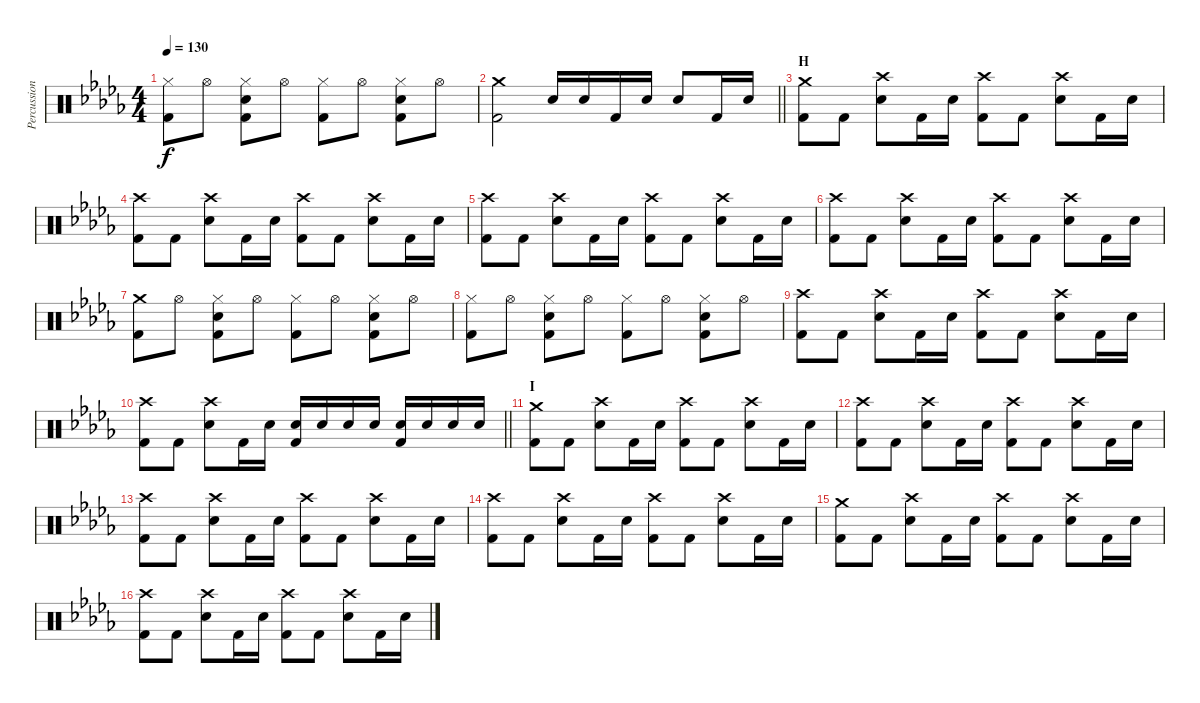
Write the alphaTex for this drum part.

\track ("Percussion" "Percussion") {instrument percussion}
\staff {score}
\articulation defaults
\ts (4 4)
\tempo 130
\clef neutral
\ks db
("Hi-Hat (closed)" "Kick (hit) 2").8{dy f} "Hi-Hat (open)".8 ("Hi-Hat (closed)" "Electric Snare (hit)" "Kick (hit) 2").8 "Hi-Hat (open)".8 ("Hi-Hat (closed)" "Kick (hit) 2").8 "Hi-Hat (open)".8 ("Hi-Hat (closed)" "Electric Snare (hit)" "Kick (hit) 2").8 "Hi-Hat (open)".8 |
\barLineRight lightlight
("Crash medium (hit)" "Kick (hit) 2").2 "Electric Snare (hit)".16 "Electric Snare (hit)".16 "Kick (hit) 2".16 "Electric Snare (hit)".16 "Electric Snare (hit)".8 "Kick (hit) 2".16 "Electric Snare (hit)".16 |
\section ("" "H")
("Crash medium (hit)" "Kick (hit) 2").8 "Kick (hit) 2".8 ("Crash high (hit)" "Electric Snare (hit)").8 "Kick (hit) 2".16 "Electric Snare (hit)".16 ("Crash high (hit)" "Kick (hit) 2").8 "Kick (hit) 2".8 ("Crash high (hit)" "Electric Snare (hit)").8 "Kick (hit) 2".16 "Electric Snare (hit)".16 |
("Crash high (hit)" "Kick (hit) 2").8 "Kick (hit) 2".8 ("Crash high (hit)" "Electric Snare (hit)").8 "Kick (hit) 2".16 "Electric Snare (hit)".16 ("Crash high (hit)" "Kick (hit) 2").8 "Kick (hit) 2".8 ("Crash high (hit)" "Electric Snare (hit)").8 "Kick (hit) 2".16 "Electric Snare (hit)".16 |
("Crash high (hit)" "Kick (hit) 2").8 "Kick (hit) 2".8 ("Crash high (hit)" "Electric Snare (hit)").8 "Kick (hit) 2".16 "Electric Snare (hit)".16 ("Crash high (hit)" "Kick (hit) 2").8 "Kick (hit) 2".8 ("Crash high (hit)" "Electric Snare (hit)").8 "Kick (hit) 2".16 "Electric Snare (hit)".16 |
("Crash high (hit)" "Kick (hit) 2").8 "Kick (hit) 2".8 ("Crash high (hit)" "Electric Snare (hit)").8 "Kick (hit) 2".16 "Electric Snare (hit)".16 ("Crash high (hit)" "Kick (hit) 2").8 "Kick (hit) 2".8 ("Crash high (hit)" "Electric Snare (hit)").8 "Kick (hit) 2".16 "Electric Snare (hit)".16 |
("Crash medium (hit)" "Kick (hit) 2").8 "Hi-Hat (open)".8 ("Hi-Hat (closed)" "Electric Snare (hit)" "Kick (hit) 2").8 "Hi-Hat (open)".8 ("Hi-Hat (closed)" "Kick (hit) 2").8 "Hi-Hat (open)".8 ("Hi-Hat (closed)" "Electric Snare (hit)" "Kick (hit) 2").8 "Hi-Hat (open)".8 |
("Hi-Hat (closed)" "Kick (hit) 2").8 "Hi-Hat (open)".8 ("Hi-Hat (closed)" "Electric Snare (hit)" "Kick (hit) 2").8 "Hi-Hat (open)".8 ("Hi-Hat (closed)" "Kick (hit) 2").8 "Hi-Hat (open)".8 ("Hi-Hat (closed)" "Electric Snare (hit)" "Kick (hit) 2").8 "Hi-Hat (open)".8 |
("Crash high (hit)" "Kick (hit) 2").8 "Kick (hit) 2".8 ("Crash high (hit)" "Electric Snare (hit)").8 "Kick (hit) 2".16 "Electric Snare (hit)".16 ("Crash high (hit)" "Kick (hit) 2").8 "Kick (hit) 2".8 ("Crash high (hit)" "Electric Snare (hit)").8 "Kick (hit) 2".16 "Electric Snare (hit)".16 |
\barLineRight lightlight
("Crash high (hit)" "Kick (hit) 2").8 "Kick (hit) 2".8 ("Crash high (hit)" "Electric Snare (hit)").8 "Kick (hit) 2".16 "Electric Snare (hit)".16 ("Electric Snare (hit)" "Kick (hit) 2").16 "Electric Snare (hit)".16 "Electric Snare (hit)".16 "Electric Snare (hit)".16 ("Electric Snare (hit)" "Kick (hit) 2").16 "Electric Snare (hit)".16 "Electric Snare (hit)".16 "Electric Snare (hit)".16 |
\section ("" "I")
("Crash medium (hit)" "Kick (hit) 2").8 "Kick (hit) 2".8 ("Crash high (hit)" "Electric Snare (hit)").8 "Kick (hit) 2".16 "Electric Snare (hit)".16 ("Crash high (hit)" "Kick (hit) 2").8 "Kick (hit) 2".8 ("Crash high (hit)" "Electric Snare (hit)").8 "Kick (hit) 2".16 "Electric Snare (hit)".16 |
("Crash high (hit)" "Kick (hit) 2").8 "Kick (hit) 2".8 ("Crash high (hit)" "Electric Snare (hit)").8 "Kick (hit) 2".16 "Electric Snare (hit)".16 ("Crash high (hit)" "Kick (hit) 2").8 "Kick (hit) 2".8 ("Crash high (hit)" "Electric Snare (hit)").8 "Kick (hit) 2".16 "Electric Snare (hit)".16 |
("Crash high (hit)" "Kick (hit) 2").8 "Kick (hit) 2".8 ("Crash high (hit)" "Electric Snare (hit)").8 "Kick (hit) 2".16 "Electric Snare (hit)".16 ("Crash high (hit)" "Kick (hit) 2").8 "Kick (hit) 2".8 ("Crash high (hit)" "Electric Snare (hit)").8 "Kick (hit) 2".16 "Electric Snare (hit)".16 |
("Crash high (hit)" "Kick (hit) 2").8 "Kick (hit) 2".8 ("Crash high (hit)" "Electric Snare (hit)").8 "Kick (hit) 2".16 "Electric Snare (hit)".16 ("Crash high (hit)" "Kick (hit) 2").8 "Kick (hit) 2".8 ("Crash high (hit)" "Electric Snare (hit)").8 "Kick (hit) 2".16 "Electric Snare (hit)".16 |
("Crash medium (hit)" "Kick (hit) 2").8 "Kick (hit) 2".8 ("Crash high (hit)" "Electric Snare (hit)").8 "Kick (hit) 2".16 "Electric Snare (hit)".16 ("Crash high (hit)" "Kick (hit) 2").8 "Kick (hit) 2".8 ("Crash high (hit)" "Electric Snare (hit)").8 "Kick (hit) 2".16 "Electric Snare (hit)".16 |
("Crash high (hit)" "Kick (hit) 2").8 "Kick (hit) 2".8 ("Crash high (hit)" "Electric Snare (hit)").8 "Kick (hit) 2".16 "Electric Snare (hit)".16 ("Crash high (hit)" "Kick (hit) 2").8 "Kick (hit) 2".8 ("Crash high (hit)" "Electric Snare (hit)").8 "Kick (hit) 2".16 "Electric Snare (hit)".16
